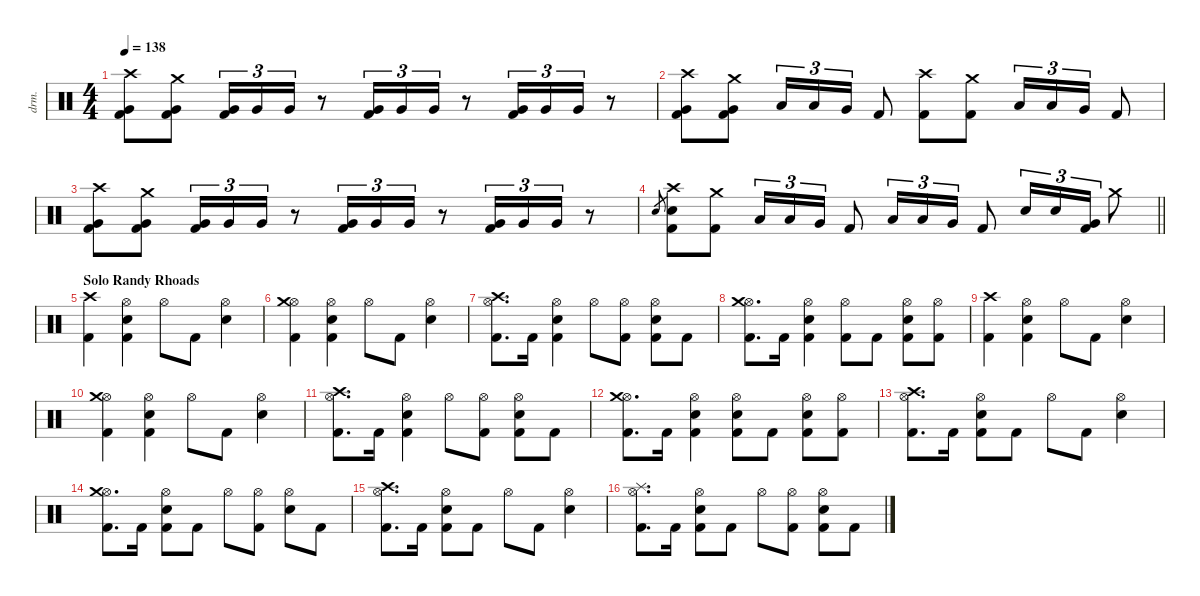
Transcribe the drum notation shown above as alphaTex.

\defaultSystemsLayout 4
\hideDynamics
\bracketExtendMode nobrackets
\otherSystemsTrackNameOrientation horizontal
\track ("Lee Kerslake" "drm.") {instrument percussion}
\staff {score}
\articulation defaults
\ts (4 4)
\tempo 138
\clef neutral
\ks c
("Very Low Tom (hit)" "Crash high (hit)" "Kick (hit) 2").8{dy f beam Down} ("Very Low Tom (hit)" "Crash medium (hit)" "Kick (hit) 2").8{beam Down} ("Very Low Tom (hit)" "Kick (hit) 2").16{tu (3 2) beam Up} "Very Low Tom (hit)".16{tu (3 2) beam Up} "Very Low Tom (hit)".16{tu (3 2) beam Up} r.8{beam Up} ("Very Low Tom (hit)" "Kick (hit) 2").16{tu (3 2) beam Up} "Very Low Tom (hit)".16{tu (3 2) beam Up} "Very Low Tom (hit)".16{tu (3 2) beam Up} r.8{beam Up} ("Very Low Tom (hit)" "Kick (hit) 2").16{tu (3 2) beam Up} "Very Low Tom (hit)".16{tu (3 2) beam Up} "Very Low Tom (hit)".16{tu (3 2) beam Up} r.8{beam Up} |
("Very Low Tom (hit)" "Crash high (hit)" "Kick (hit) 2").8{beam Down} ("Very Low Tom (hit)" "Crash medium (hit)" "Kick (hit) 2").8{beam Down} "Low Tom (hit)".16{tu (3 2) beam Up} "Low Tom (hit)".16{tu (3 2) beam Up} "Very Low Tom (hit)".16{tu (3 2) beam Up} "Kick (hit) 2".8{beam Up} ("Crash high (hit)" "Kick (hit) 2").8{beam Down} ("Crash medium (hit)" "Kick (hit) 2").8{beam Down} "Low Tom (hit)".16{tu (3 2) beam Up} "Low Tom (hit)".16{tu (3 2) beam Up} "Very Low Tom (hit)".16{tu (3 2) beam Up} "Kick (hit) 2".8{beam Up} |
("Very Low Tom (hit)" "Crash high (hit)" "Kick (hit) 2").8{beam Down} ("Very Low Tom (hit)" "Crash medium (hit)" "Kick (hit) 2").8{beam Down} ("Very Low Tom (hit)" "Kick (hit) 2").16{tu (3 2) beam Up} "Very Low Tom (hit)".16{tu (3 2) beam Up} "Very Low Tom (hit)".16{tu (3 2) beam Up} r.8{beam Up} ("Very Low Tom (hit)" "Kick (hit) 2").16{tu (3 2) beam Up} "Very Low Tom (hit)".16{tu (3 2) beam Up} "Very Low Tom (hit)".16{tu (3 2) beam Up} r.8{beam Up} ("Very Low Tom (hit)" "Kick (hit) 2").16{tu (3 2) beam Up} "Very Low Tom (hit)".16{tu (3 2) beam Up} "Very Low Tom (hit)".16{tu (3 2) beam Up} r.8{beam Up} |
\barLineRight lightlight "Snare (hit) 2".8{gr dy mf beam Up}
("Snare (hit) 2" "Crash high (hit)" "Kick (hit) 2").8{dy f beam Down} ("Crash medium (hit)" "Kick (hit) 2").8{beam Down} "Low Tom (hit)".16{tu (3 2) beam Up} "Low Tom (hit)".16{tu (3 2) beam Up} "Very Low Tom (hit)".16{tu (3 2) beam Up} "Kick (hit) 2".8{beam Up} "Low Tom (hit)".16{tu (3 2) beam Up} "Low Tom (hit)".16{tu (3 2) beam Up} "Very Low Tom (hit)".16{tu (3 2) beam Up} "Kick (hit) 2".8{beam Up} "Snare (hit) 2".16{tu (3 2) beam Up} "Snare (hit) 2".16{tu (3 2) beam Up} ("Very Low Tom (hit)" "Kick (hit) 2").16{tu (3 2) beam Up} "Crash medium (hit)".8{beam Down} |
\section ("" "Solo Randy Rhoads")
("Crash high (hit)" "Kick (hit) 2").4{beam Down} ("Hi-Hat (open)" "Snare (hit) 2" "Kick (hit) 2").4{beam Down} "Hi-Hat (open)".8{beam Down} "Kick (hit) 2".8{beam Down} ("Hi-Hat (open)" "Snare (hit) 2").4{beam Down} |
("Hi-Hat (open)" "Crash medium (hit)" "Kick (hit) 2").4{beam Down} ("Hi-Hat (open)" "Snare (hit) 2" "Kick (hit) 2").4{beam Down} "Hi-Hat (open)".8{beam Down} "Kick (hit) 2".8{beam Down} ("Hi-Hat (open)" "Snare (hit) 2").4{beam Down} |
("Hi-Hat (open)" "Crash high (hit)" "Kick (hit) 2").8{d beam Down} "Kick (hit) 2".16{beam Down} ("Hi-Hat (open)" "Snare (hit) 2" "Kick (hit) 2").4{beam Down} "Hi-Hat (open)".8{beam Down} ("Hi-Hat (open)" "Kick (hit) 2").8{beam Down} ("Hi-Hat (open)" "Snare (hit) 2" "Kick (hit) 2").8{beam Down} "Kick (hit) 2".8{beam Down} |
("Hi-Hat (open)" "Crash medium (hit)" "Kick (hit) 2").8{d beam Down} "Kick (hit) 2".16{beam Down} ("Hi-Hat (open)" "Snare (hit) 2" "Kick (hit) 2").4{beam Down} ("Hi-Hat (open)" "Kick (hit) 2").8{beam Down} "Kick (hit) 2".8{beam Down} ("Hi-Hat (open)" "Snare (hit) 2" "Kick (hit) 2").8{beam Down} ("Hi-Hat (open)" "Kick (hit) 2").8{beam Down} |
("Crash high (hit)" "Kick (hit) 2").4{beam Down} ("Hi-Hat (open)" "Snare (hit) 2" "Kick (hit) 2").4{beam Down} "Hi-Hat (open)".8{beam Down} "Kick (hit) 2".8{beam Down} ("Hi-Hat (open)" "Snare (hit) 2").4{beam Down} |
("Hi-Hat (open)" "Crash medium (hit)" "Kick (hit) 2").4{beam Down} ("Hi-Hat (open)" "Snare (hit) 2" "Kick (hit) 2").4{beam Down} "Hi-Hat (open)".8{beam Down} "Kick (hit) 2".8{beam Down} ("Hi-Hat (open)" "Snare (hit) 2").4{beam Down} |
("Hi-Hat (open)" "Crash high (hit)" "Kick (hit) 2").8{d beam Down} "Kick (hit) 2".16{beam Down} ("Hi-Hat (open)" "Snare (hit) 2" "Kick (hit) 2").4{beam Down} "Hi-Hat (open)".8{beam Down} ("Hi-Hat (open)" "Kick (hit) 2").8{beam Down} ("Hi-Hat (open)" "Snare (hit) 2" "Kick (hit) 2").8{beam Down} "Kick (hit) 2".8{beam Down} |
("Hi-Hat (open)" "Crash medium (hit)" "Kick (hit) 2").8{d beam Down} "Kick (hit) 2".16{beam Down} ("Hi-Hat (open)" "Snare (hit) 2" "Kick (hit) 2").4{beam Down} ("Hi-Hat (open)" "Snare (hit) 2" "Kick (hit) 2").8{beam Down} "Kick (hit) 2".8{beam Down} ("Hi-Hat (open)" "Snare (hit) 2" "Kick (hit) 2").8{beam Down} ("Hi-Hat (open)" "Kick (hit) 2").8{beam Down} |
("Hi-Hat (open)" "Crash high (hit)" "Kick (hit) 2").8{d beam Down} "Kick (hit) 2".16{beam Down} ("Hi-Hat (open)" "Snare (hit) 2" "Kick (hit) 2").8{beam Down} "Kick (hit) 2".8{beam Down} "Hi-Hat (open)".8{beam Down} "Kick (hit) 2".8{beam Down} ("Hi-Hat (open)" "Snare (hit) 2").4{beam Down} |
("Hi-Hat (open)" "Crash medium (hit)" "Kick (hit) 2").8{d beam Down} "Kick (hit) 2".16{beam Down} ("Hi-Hat (open)" "Snare (hit) 2" "Kick (hit) 2").8{beam Down} "Kick (hit) 2".8{beam Down} "Hi-Hat (open)".8{beam Down} ("Hi-Hat (open)" "Kick (hit) 2").8{beam Down} ("Hi-Hat (open)" "Snare (hit) 2").8{beam Down} "Kick (hit) 2".8{beam Down} |
("Hi-Hat (open)" "Crash high (hit)" "Kick (hit) 2").8{d beam Down} "Kick (hit) 2".16{beam Down} ("Hi-Hat (open)" "Snare (hit) 2" "Kick (hit) 2").8{beam Down} "Kick (hit) 2".8{beam Down} "Hi-Hat (open)".8{beam Down} "Kick (hit) 2".8{beam Down} ("Hi-Hat (open)" "Snare (hit) 2").4{beam Down} |
("Hi-Hat (open)" "Splash (hit)" "Kick (hit) 2").8{d beam Down} "Kick (hit) 2".16{beam Down} ("Hi-Hat (open)" "Snare (hit) 2" "Kick (hit) 2").8{beam Down} "Kick (hit) 2".8{beam Down} "Hi-Hat (open)".8{beam Down} ("Hi-Hat (open)" "Kick (hit) 2").8{beam Down} ("Hi-Hat (open)" "Snare (hit) 2" "Kick (hit) 2").8{beam Down} "Kick (hit) 2".8{beam Down}
